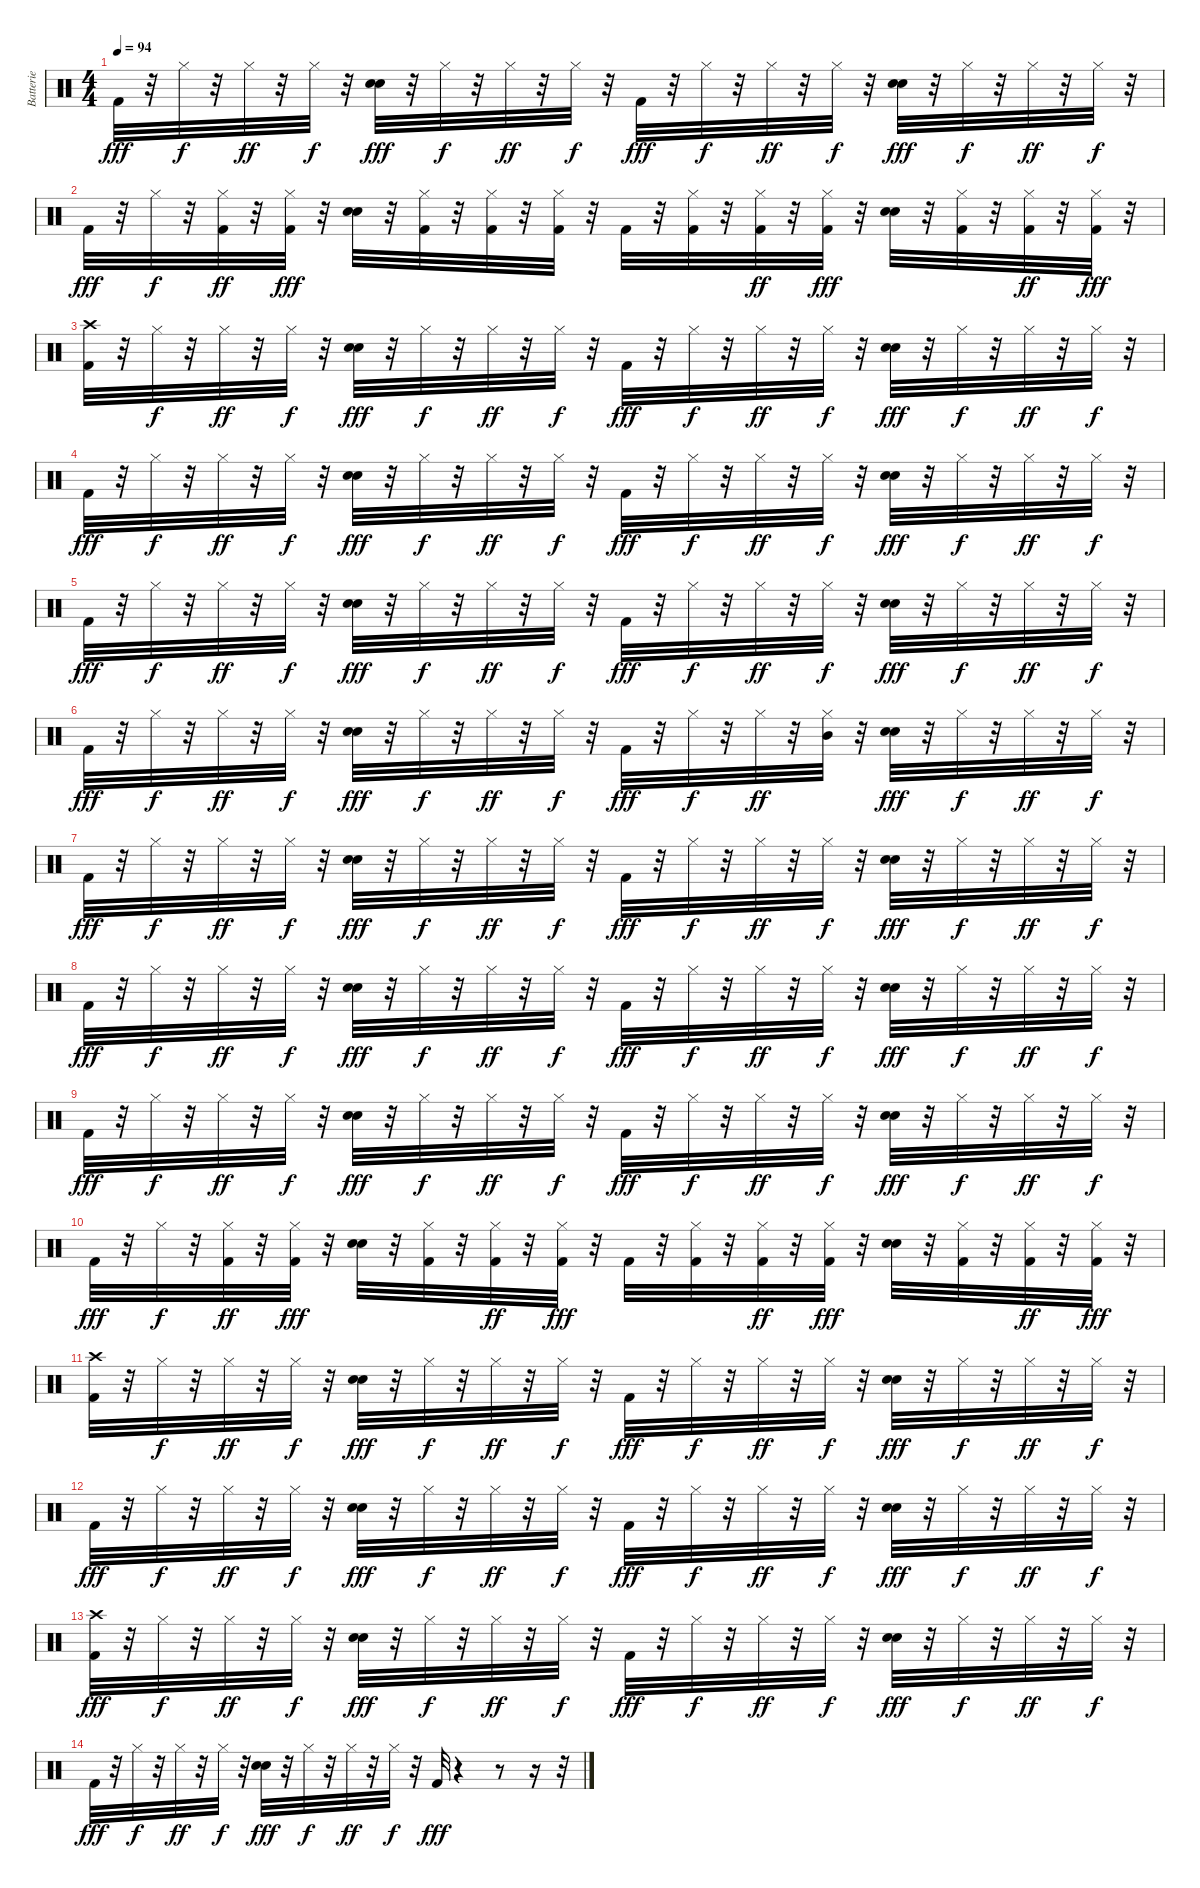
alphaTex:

\track ("Batterie" "Batterie") {instrument percussion}
\staff {score}
\articulation defaults
\ts (4 4)
\tempo 94
\clef neutral
\ks c "Kick (hit) 2".32{dy fff}
r.32 "Hi-Hat (closed)".32{dy f} r.32 "Hi-Hat (closed)".32{dy ff} r.32 "Hi-Hat (closed)".32{dy f} r.32 ("Electric Snare (hit)" "Hand Clap (hit)").32{dy fff} r.32 "Hi-Hat (closed)".32{dy f} r.32 "Hi-Hat (closed)".32{dy ff} r.32 "Hi-Hat (closed)".32{dy f} r.32 "Kick (hit) 2".32{dy fff} r.32 "Hi-Hat (closed)".32{dy f} r.32 "Hi-Hat (closed)".32{dy ff} r.32 "Hi-Hat (closed)".32{dy f} r.32 ("Electric Snare (hit)" "Hand Clap (hit)").32{dy fff} r.32 "Hi-Hat (closed)".32{dy f} r.32 "Hi-Hat (closed)".32{dy ff} r.32 "Hi-Hat (closed)".32{dy f} r.32 |
"Kick (hit) 2".32{dy fff} r.32 "Hi-Hat (closed)".32{dy f} r.32 ("Kick (hit) 2" "Hi-Hat (closed)").32{dy ff} r.32 ("Kick (hit) 2" "Hi-Hat (closed)").32{dy fff} r.32 ("Electric Snare (hit)" "Hand Clap (hit)").32 r.32 ("Kick (hit) 2" "Hi-Hat (closed)").32 r.32 ("Hi-Hat (closed)" "Kick (hit) 2").32 r.32 ("Kick (hit) 2" "Hi-Hat (closed)").32 r.32 "Kick (hit) 2".32 r.32 ("Kick (hit) 2" "Hi-Hat (closed)").32 r.32 ("Kick (hit) 2" "Hi-Hat (closed)").32{dy ff} r.32 ("Kick (hit) 2" "Hi-Hat (closed)").32{dy fff} r.32 ("Electric Snare (hit)" "Hand Clap (hit)").32 r.32 ("Kick (hit) 2" "Hi-Hat (closed)").32 r.32 ("Kick (hit) 2" "Hi-Hat (closed)").32{dy ff} r.32 ("Kick (hit) 2" "Hi-Hat (closed)").32{dy fff} r.32 |
("Kick (hit) 2" "Crash high (hit)").32 r.32 "Hi-Hat (closed)".32{dy f} r.32 "Hi-Hat (closed)".32{dy ff} r.32 "Hi-Hat (closed)".32{dy f} r.32 ("Electric Snare (hit)" "Hand Clap (hit)").32{dy fff} r.32 "Hi-Hat (closed)".32{dy f} r.32 "Hi-Hat (closed)".32{dy ff} r.32 "Hi-Hat (closed)".32{dy f} r.32 "Kick (hit) 2".32{dy fff} r.32 "Hi-Hat (closed)".32{dy f} r.32 "Hi-Hat (closed)".32{dy ff} r.32 "Hi-Hat (closed)".32{dy f} r.32 ("Electric Snare (hit)" "Hand Clap (hit)").32{dy fff} r.32 "Hi-Hat (closed)".32{dy f} r.32 "Hi-Hat (closed)".32{dy ff} r.32 "Hi-Hat (closed)".32{dy f} r.32 |
"Kick (hit) 2".32{dy fff} r.32 "Hi-Hat (closed)".32{dy f} r.32 "Hi-Hat (closed)".32{dy ff} r.32 "Hi-Hat (closed)".32{dy f} r.32 ("Electric Snare (hit)" "Hand Clap (hit)").32{dy fff} r.32 "Hi-Hat (closed)".32{dy f} r.32 "Hi-Hat (closed)".32{dy ff} r.32 "Hi-Hat (closed)".32{dy f} r.32 "Kick (hit) 2".32{dy fff} r.32 "Hi-Hat (closed)".32{dy f} r.32 "Hi-Hat (closed)".32{dy ff} r.32 "Hi-Hat (closed)".32{dy f} r.32 ("Electric Snare (hit)" "Hand Clap (hit)").32{dy fff} r.32 "Hi-Hat (closed)".32{dy f} r.32 "Hi-Hat (closed)".32{dy ff} r.32 "Hi-Hat (closed)".32{dy f} r.32 |
"Kick (hit) 2".32{dy fff} r.32 "Hi-Hat (closed)".32{dy f} r.32 "Hi-Hat (closed)".32{dy ff} r.32 "Hi-Hat (closed)".32{dy f} r.32 ("Electric Snare (hit)" "Hand Clap (hit)").32{dy fff} r.32 "Hi-Hat (closed)".32{dy f} r.32 "Hi-Hat (closed)".32{dy ff} r.32 "Hi-Hat (closed)".32{dy f} r.32 "Kick (hit) 2".32{dy fff} r.32 "Hi-Hat (closed)".32{dy f} r.32 "Hi-Hat (closed)".32{dy ff} r.32 "Hi-Hat (closed)".32{dy f} r.32 ("Electric Snare (hit)" "Hand Clap (hit)").32{dy fff} r.32 "Hi-Hat (closed)".32{dy f} r.32 "Hi-Hat (closed)".32{dy ff} r.32 "Hi-Hat (closed)".32{dy f} r.32 |
"Kick (hit) 2".32{dy fff} r.32 "Hi-Hat (closed)".32{dy f} r.32 "Hi-Hat (closed)".32{dy ff} r.32 "Hi-Hat (closed)".32{dy f} r.32 ("Electric Snare (hit)" "Hand Clap (hit)").32{dy fff} r.32 "Hi-Hat (closed)".32{dy f} r.32 "Hi-Hat (closed)".32{dy ff} r.32 "Hi-Hat (closed)".32{dy f} r.32 "Kick (hit) 2".32{dy fff} r.32 "Hi-Hat (closed)".32{dy f} r.32 "Hi-Hat (closed)".32{dy ff} r.32 ("Hi-Hat (closed)" "Mid Tom (hit)").32 r.32 ("Electric Snare (hit)" "Hand Clap (hit)").32{dy fff} r.32 "Hi-Hat (closed)".32{dy f} r.32 "Hi-Hat (closed)".32{dy ff} r.32 "Hi-Hat (closed)".32{dy f} r.32 |
"Kick (hit) 2".32{dy fff} r.32 "Hi-Hat (closed)".32{dy f} r.32 "Hi-Hat (closed)".32{dy ff} r.32 "Hi-Hat (closed)".32{dy f} r.32 ("Electric Snare (hit)" "Hand Clap (hit)").32{dy fff} r.32 "Hi-Hat (closed)".32{dy f} r.32 "Hi-Hat (closed)".32{dy ff} r.32 "Hi-Hat (closed)".32{dy f} r.32 "Kick (hit) 2".32{dy fff} r.32 "Hi-Hat (closed)".32{dy f} r.32 "Hi-Hat (closed)".32{dy ff} r.32 "Hi-Hat (closed)".32{dy f} r.32 ("Electric Snare (hit)" "Hand Clap (hit)").32{dy fff} r.32 "Hi-Hat (closed)".32{dy f} r.32 "Hi-Hat (closed)".32{dy ff} r.32 "Hi-Hat (closed)".32{dy f} r.32 |
"Kick (hit) 2".32{dy fff} r.32 "Hi-Hat (closed)".32{dy f} r.32 "Hi-Hat (closed)".32{dy ff} r.32 "Hi-Hat (closed)".32{dy f} r.32 ("Electric Snare (hit)" "Hand Clap (hit)").32{dy fff} r.32 "Hi-Hat (closed)".32{dy f} r.32 "Hi-Hat (closed)".32{dy ff} r.32 "Hi-Hat (closed)".32{dy f} r.32 "Kick (hit) 2".32{dy fff} r.32 "Hi-Hat (closed)".32{dy f} r.32 "Hi-Hat (closed)".32{dy ff} r.32 "Hi-Hat (closed)".32{dy f} r.32 ("Electric Snare (hit)" "Hand Clap (hit)").32{dy fff} r.32 "Hi-Hat (closed)".32{dy f} r.32 "Hi-Hat (closed)".32{dy ff} r.32 "Hi-Hat (closed)".32{dy f} r.32 |
"Kick (hit) 2".32{dy fff} r.32 "Hi-Hat (closed)".32{dy f} r.32 "Hi-Hat (closed)".32{dy ff} r.32 "Hi-Hat (closed)".32{dy f} r.32 ("Electric Snare (hit)" "Hand Clap (hit)").32{dy fff} r.32 "Hi-Hat (closed)".32{dy f} r.32 "Hi-Hat (closed)".32{dy ff} r.32 "Hi-Hat (closed)".32{dy f} r.32 "Kick (hit) 2".32{dy fff} r.32 "Hi-Hat (closed)".32{dy f} r.32 "Hi-Hat (closed)".32{dy ff} r.32 "Hi-Hat (closed)".32{dy f} r.32 ("Electric Snare (hit)" "Hand Clap (hit)").32{dy fff} r.32 "Hi-Hat (closed)".32{dy f} r.32 "Hi-Hat (closed)".32{dy ff} r.32 "Hi-Hat (closed)".32{dy f} r.32 |
"Kick (hit) 2".32{dy fff} r.32 "Hi-Hat (closed)".32{dy f} r.32 ("Kick (hit) 2" "Hi-Hat (closed)").32{dy ff} r.32 ("Kick (hit) 2" "Hi-Hat (closed)").32{dy fff} r.32 ("Electric Snare (hit)" "Hand Clap (hit)").32 r.32 ("Kick (hit) 2" "Hi-Hat (closed)").32 r.32 ("Kick (hit) 2" "Hi-Hat (closed)").32{dy ff} r.32 ("Kick (hit) 2" "Hi-Hat (closed)").32{dy fff} r.32 "Kick (hit) 2".32 r.32 ("Kick (hit) 2" "Hi-Hat (closed)").32 r.32 ("Kick (hit) 2" "Hi-Hat (closed)").32{dy ff} r.32 ("Kick (hit) 2" "Hi-Hat (closed)").32{dy fff} r.32 ("Electric Snare (hit)" "Hand Clap (hit)").32 r.32 ("Kick (hit) 2" "Hi-Hat (closed)").32 r.32 ("Kick (hit) 2" "Hi-Hat (closed)").32{dy ff} r.32 ("Kick (hit) 2" "Hi-Hat (closed)").32{dy fff} r.32 |
("Kick (hit) 2" "Crash high (hit)").32 r.32 "Hi-Hat (closed)".32{dy f} r.32 "Hi-Hat (closed)".32{dy ff} r.32 "Hi-Hat (closed)".32{dy f} r.32 ("Electric Snare (hit)" "Hand Clap (hit)").32{dy fff} r.32 "Hi-Hat (closed)".32{dy f} r.32 "Hi-Hat (closed)".32{dy ff} r.32 "Hi-Hat (closed)".32{dy f} r.32 "Kick (hit) 2".32{dy fff} r.32 "Hi-Hat (closed)".32{dy f} r.32 "Hi-Hat (closed)".32{dy ff} r.32 "Hi-Hat (closed)".32{dy f} r.32 ("Electric Snare (hit)" "Hand Clap (hit)").32{dy fff} r.32 "Hi-Hat (closed)".32{dy f} r.32 "Hi-Hat (closed)".32{dy ff} r.32 "Hi-Hat (closed)".32{dy f} r.32 |
"Kick (hit) 2".32{dy fff} r.32 "Hi-Hat (closed)".32{dy f} r.32 "Hi-Hat (closed)".32{dy ff} r.32 "Hi-Hat (closed)".32{dy f} r.32 ("Electric Snare (hit)" "Hand Clap (hit)").32{dy fff} r.32 "Hi-Hat (closed)".32{dy f} r.32 "Hi-Hat (closed)".32{dy ff} r.32 "Hi-Hat (closed)".32{dy f} r.32 "Kick (hit) 2".32{dy fff} r.32 "Hi-Hat (closed)".32{dy f} r.32 "Hi-Hat (closed)".32{dy ff} r.32 "Hi-Hat (closed)".32{dy f} r.32 ("Electric Snare (hit)" "Hand Clap (hit)").32{dy fff} r.32 "Hi-Hat (closed)".32{dy f} r.32 "Hi-Hat (closed)".32{dy ff} r.32 "Hi-Hat (closed)".32{dy f} r.32 |
("Kick (hit) 2" "Crash high (hit)").32{dy fff} r.32 "Hi-Hat (closed)".32{dy f} r.32 "Hi-Hat (closed)".32{dy ff} r.32 "Hi-Hat (closed)".32{dy f} r.32 ("Electric Snare (hit)" "Hand Clap (hit)").32{dy fff} r.32 "Hi-Hat (closed)".32{dy f} r.32 "Hi-Hat (closed)".32{dy ff} r.32 "Hi-Hat (closed)".32{dy f} r.32 "Kick (hit) 2".32{dy fff} r.32 "Hi-Hat (closed)".32{dy f} r.32 "Hi-Hat (closed)".32{dy ff} r.32 "Hi-Hat (closed)".32{dy f} r.32 ("Electric Snare (hit)" "Hand Clap (hit)").32{dy fff} r.32 "Hi-Hat (closed)".32{dy f} r.32 "Hi-Hat (closed)".32{dy ff} r.32 "Hi-Hat (closed)".32{dy f} r.32 |
"Kick (hit) 2".32{dy fff} r.32 "Hi-Hat (closed)".32{dy f} r.32 "Hi-Hat (closed)".32{dy ff} r.32 "Hi-Hat (closed)".32{dy f} r.32 ("Electric Snare (hit)" "Hand Clap (hit)").32{dy fff} r.32 "Hi-Hat (closed)".32{dy f} r.32 "Hi-Hat (closed)".32{dy ff} r.32 "Hi-Hat (closed)".32{dy f} r.32 "Kick (hit) 2".32{dy fff} r.4 r.8 r.16 r.32
